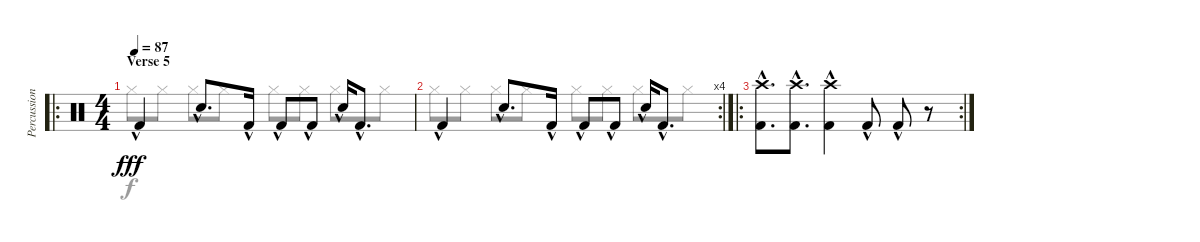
\track ("Percussion" "Percussion") {instrument percussion}
\staff {score}
\articulation defaults
\voice
\ro
\ts (4 4)
\section ("" "Verse 5")
\tempo 87
\clef neutral
\ks c "Kick (hit) 2"{hac}.4{dy fff} "Snare (hit) 2"{hac}.8{d} "Kick (hit) 2"{hac}.16 "Kick (hit) 2"{hac}.8 "Kick (hit) 2"{hac}.8 "Snare (hit) 2"{hac}.16 "Kick (hit) 2"{hac}.8{d}
|
\rc 4 "Kick (hit) 2"{hac}.4 "Snare (hit) 2"{hac}.8{d} "Kick (hit) 2"{hac}.16 "Kick (hit) 2"{hac}.8 "Kick (hit) 2"{hac}.8 "Snare (hit) 2"{hac}.16 "Kick (hit) 2"{hac}.8{d}
|
\ro
\rc 2
("Crash high (hit)" "Kick (hit) 2"{hac}).8{d} ("Crash high (hit)" "Kick (hit) 2"{hac}).8{d} ("Crash high (hit)" "Kick (hit) 2"{hac}).4 "Kick (hit) 2"{hac}.8 "Kick (hit) 2"{hac}.8 r.8 |
|
\voice
\clef neutral
\ottava regular
\simile none
\ks c "Hi-Hat (closed)".8{dy f} "Hi-Hat (closed)".8 "Hi-Hat (closed)".8 "Hi-Hat (closed)".8 "Hi-Hat (closed)".8 "Hi-Hat (closed)".8 "Hi-Hat (closed)".8 "Hi-Hat (closed)".8
|
"Hi-Hat (closed)".8 "Hi-Hat (closed)".8 "Hi-Hat (closed)".8 "Hi-Hat (closed)".8 "Hi-Hat (closed)".8 "Hi-Hat (closed)".8 "Hi-Hat (closed)".8 "Hi-Hat (closed)".8 |
|
|
